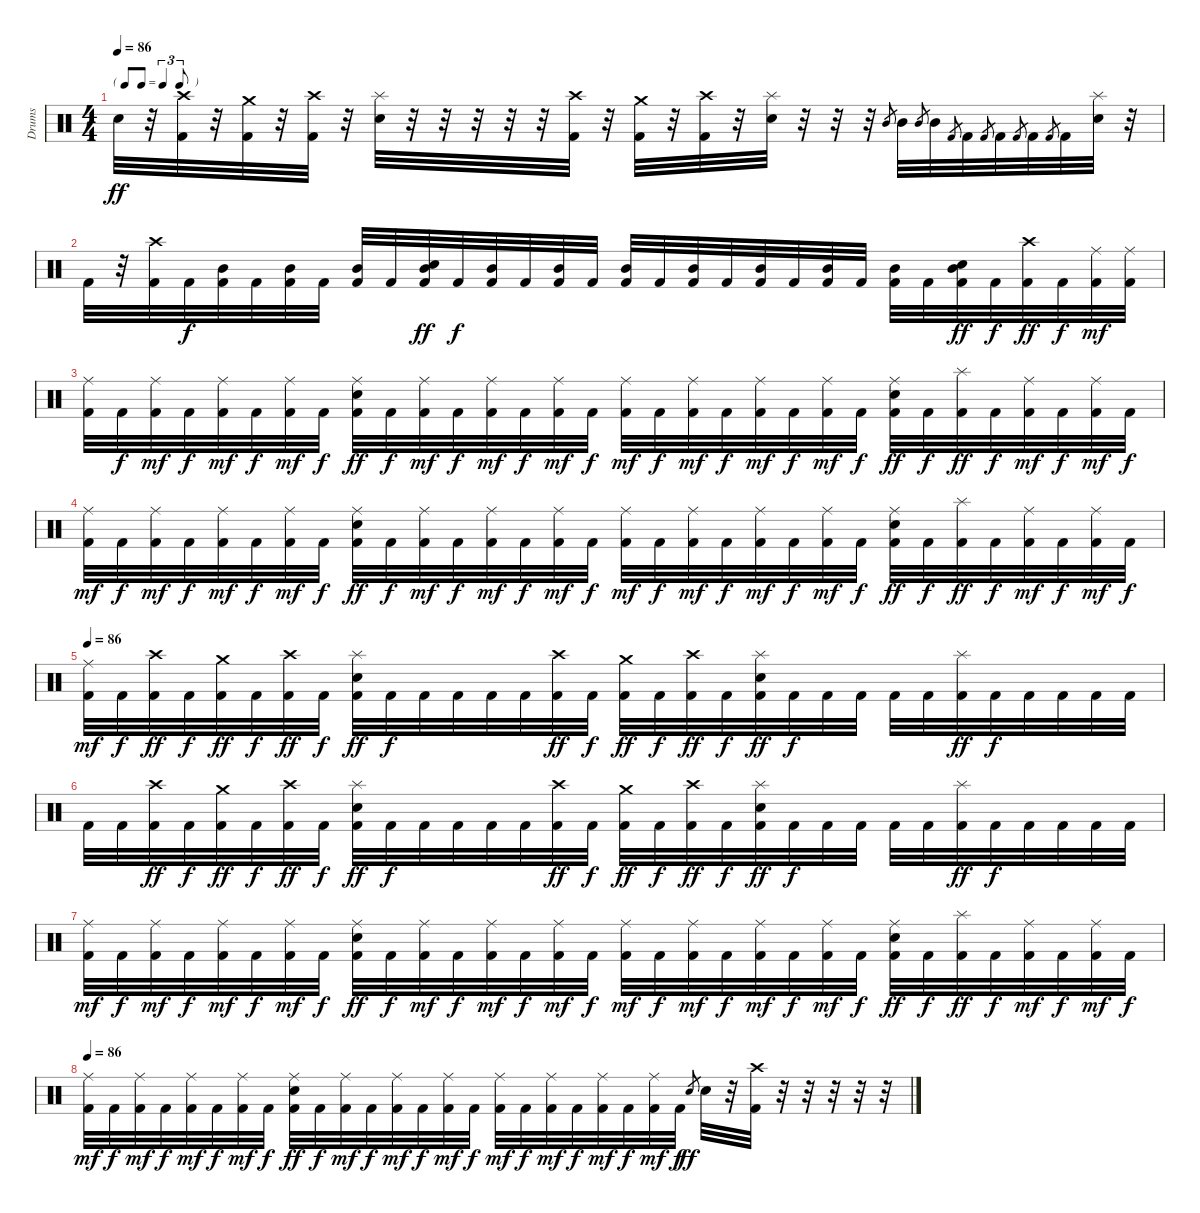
\track ("Drums" "Drums") {instrument percussion}
\staff {score}
\articulation defaults
\ts (4 4)
\tf triplet8th
\tempo 86
\clef neutral
\ks c "Electric Snare (hit)".32{dy ff}
r.32 ("Crash high (hit)" "Kick (hit) 2").32 r.32 ("Crash medium (hit)" "Kick (hit) 2").32 r.32 ("Crash high (hit)" "Kick (hit) 2").32 r.32 ("Splash (hit)" "Electric Snare (hit)").32 r.32 r.32 r.32 r.32 r.32 ("Crash high (hit)" "Kick (hit) 2").32 r.32 ("Crash medium (hit)" "Kick (hit) 2").32 r.32 ("Crash high (hit)" "Kick (hit) 2").32 r.32 ("Splash (hit)" "Electric Snare (hit)").32 r.32 r.32 r.32 "Mid Tom (hit)".8{gr} "Mid Tom (hit)".32 "Mid Tom (hit)".8{gr} "Mid Tom (hit)".32 "Kick (hit) 2".8{gr} "Kick (hit) 2".32 "Kick (hit) 2".8{gr} "Kick (hit) 2".32 "Kick (hit) 2".8{gr} "Kick (hit) 2".32 "Kick (hit) 2".8{gr} "Kick (hit) 2".32 ("Splash (hit)" "Electric Snare (hit)").32 r.32 |
"Kick (hit) 2".32 r.32 ("Crash high (hit)" "Kick (hit) 2").32 "Kick (hit) 2".32{dy f} ("Mid Tom (hit)" "Kick (hit) 2").32 "Kick (hit) 2".32 ("Mid Tom (hit)" "Kick (hit) 2").32 "Kick (hit) 2".32 ("Mid Tom (hit)" "Kick (hit) 2").32 "Kick (hit) 2".32 ("Electric Snare (hit)" "Mid Tom (hit)" "Kick (hit) 2").32{dy ff} "Kick (hit) 2".32{dy f} ("Mid Tom (hit)" "Kick (hit) 2").32 "Kick (hit) 2".32 ("Mid Tom (hit)" "Kick (hit) 2").32 "Kick (hit) 2".32 ("Mid Tom (hit)" "Kick (hit) 2").32 "Kick (hit) 2".32 ("Mid Tom (hit)" "Kick (hit) 2").32 "Kick (hit) 2".32 ("Mid Tom (hit)" "Kick (hit) 2").32 "Kick (hit) 2".32 ("Mid Tom (hit)" "Kick (hit) 2").32 "Kick (hit) 2".32 ("Mid Tom (hit)" "Kick (hit) 2").32 "Kick (hit) 2".32 ("Electric Snare (hit)" "Mid Tom (hit)" "Kick (hit) 2").32{dy ff} "Kick (hit) 2".32{dy f} ("Crash high (hit)" "Kick (hit) 2").32{dy ff} "Kick (hit) 2".32{dy f} ("Ride (middle)" "Kick (hit) 2").32{dy mf} ("Ride (middle)" "Kick (hit) 2").32 |
("Ride (middle)" "Kick (hit) 2").32 "Kick (hit) 2".32{dy f} ("Ride (middle)" "Kick (hit) 2").32{dy mf} "Kick (hit) 2".32{dy f} ("Ride (middle)" "Kick (hit) 2").32{dy mf} "Kick (hit) 2".32{dy f} ("Ride (middle)" "Kick (hit) 2").32{dy mf} "Kick (hit) 2".32{dy f} ("Ride (middle)" "Electric Snare (hit)" "Kick (hit) 2").32{dy ff} "Kick (hit) 2".32{dy f} ("Ride (middle)" "Kick (hit) 2").32{dy mf} "Kick (hit) 2".32{dy f} ("Ride (middle)" "Kick (hit) 2").32{dy mf} "Kick (hit) 2".32{dy f} ("Ride (middle)" "Kick (hit) 2").32{dy mf} "Kick (hit) 2".32{dy f} ("Ride (middle)" "Kick (hit) 2").32{dy mf} "Kick (hit) 2".32{dy f} ("Ride (middle)" "Kick (hit) 2").32{dy mf} "Kick (hit) 2".32{dy f} ("Ride (middle)" "Kick (hit) 2").32{dy mf} "Kick (hit) 2".32{dy f} ("Ride (middle)" "Kick (hit) 2").32{dy mf} "Kick (hit) 2".32{dy f} ("Ride (middle)" "Electric Snare (hit)" "Kick (hit) 2").32{dy ff} "Kick (hit) 2".32{dy f} ("Splash (hit)" "Kick (hit) 2").32{dy ff} "Kick (hit) 2".32{dy f} ("Ride (middle)" "Kick (hit) 2").32{dy mf} "Kick (hit) 2".32{dy f} ("Ride (middle)" "Kick (hit) 2").32{dy mf} "Kick (hit) 2".32{dy f} |
("Ride (middle)" "Kick (hit) 2").32{dy mf} "Kick (hit) 2".32{dy f} ("Ride (middle)" "Kick (hit) 2").32{dy mf} "Kick (hit) 2".32{dy f} ("Ride (middle)" "Kick (hit) 2").32{dy mf} "Kick (hit) 2".32{dy f} ("Ride (middle)" "Kick (hit) 2").32{dy mf} "Kick (hit) 2".32{dy f} ("Ride (middle)" "Electric Snare (hit)" "Kick (hit) 2").32{dy ff} "Kick (hit) 2".32{dy f} ("Ride (middle)" "Kick (hit) 2").32{dy mf} "Kick (hit) 2".32{dy f} ("Ride (middle)" "Kick (hit) 2").32{dy mf} "Kick (hit) 2".32{dy f} ("Ride (middle)" "Kick (hit) 2").32{dy mf} "Kick (hit) 2".32{dy f} ("Ride (middle)" "Kick (hit) 2").32{dy mf} "Kick (hit) 2".32{dy f} ("Ride (middle)" "Kick (hit) 2").32{dy mf} "Kick (hit) 2".32{dy f} ("Ride (middle)" "Kick (hit) 2").32{dy mf} "Kick (hit) 2".32{dy f} ("Ride (middle)" "Kick (hit) 2").32{dy mf} "Kick (hit) 2".32{dy f} ("Ride (middle)" "Electric Snare (hit)" "Kick (hit) 2").32{dy ff} "Kick (hit) 2".32{dy f} ("Splash (hit)" "Kick (hit) 2").32{dy ff} "Kick (hit) 2".32{dy f} ("Ride (middle)" "Kick (hit) 2").32{dy mf} "Kick (hit) 2".32{dy f} ("Ride (middle)" "Kick (hit) 2").32{dy mf} "Kick (hit) 2".32{dy f} |
\tempo 86
("Ride (middle)" "Kick (hit) 2").32{dy mf} "Kick (hit) 2".32{dy f} ("Crash high (hit)" "Kick (hit) 2").32{dy ff} "Kick (hit) 2".32{dy f} ("Crash medium (hit)" "Kick (hit) 2").32{dy ff} "Kick (hit) 2".32{dy f} ("Crash high (hit)" "Kick (hit) 2").32{dy ff} "Kick (hit) 2".32{dy f} ("Splash (hit)" "Electric Snare (hit)" "Kick (hit) 2").32{dy ff} "Kick (hit) 2".32{dy f} "Kick (hit) 2".32 "Kick (hit) 2".32 "Kick (hit) 2".32 "Kick (hit) 2".32 ("Crash high (hit)" "Kick (hit) 2").32{dy ff} "Kick (hit) 2".32{dy f} ("Crash medium (hit)" "Kick (hit) 2").32{dy ff} "Kick (hit) 2".32{dy f} ("Crash high (hit)" "Kick (hit) 2").32{dy ff} "Kick (hit) 2".32{dy f} ("Splash (hit)" "Electric Snare (hit)" "Kick (hit) 2").32{dy ff} "Kick (hit) 2".32{dy f} "Kick (hit) 2".32 "Kick (hit) 2".32 "Kick (hit) 2".32 "Kick (hit) 2".32 ("Splash (hit)" "Kick (hit) 2").32{dy ff} "Kick (hit) 2".32{dy f} "Kick (hit) 2".32 "Kick (hit) 2".32 "Kick (hit) 2".32 "Kick (hit) 2".32 |
"Kick (hit) 2".32 "Kick (hit) 2".32 ("Crash high (hit)" "Kick (hit) 2").32{dy ff} "Kick (hit) 2".32{dy f} ("Crash medium (hit)" "Kick (hit) 2").32{dy ff} "Kick (hit) 2".32{dy f} ("Crash high (hit)" "Kick (hit) 2").32{dy ff} "Kick (hit) 2".32{dy f} ("Splash (hit)" "Electric Snare (hit)" "Kick (hit) 2").32{dy ff} "Kick (hit) 2".32{dy f} "Kick (hit) 2".32 "Kick (hit) 2".32 "Kick (hit) 2".32 "Kick (hit) 2".32 ("Crash high (hit)" "Kick (hit) 2").32{dy ff} "Kick (hit) 2".32{dy f} ("Crash medium (hit)" "Kick (hit) 2").32{dy ff} "Kick (hit) 2".32{dy f} ("Crash high (hit)" "Kick (hit) 2").32{dy ff} "Kick (hit) 2".32{dy f} ("Splash (hit)" "Electric Snare (hit)" "Kick (hit) 2").32{dy ff} "Kick (hit) 2".32{dy f} "Kick (hit) 2".32 "Kick (hit) 2".32 "Kick (hit) 2".32 "Kick (hit) 2".32 ("Splash (hit)" "Kick (hit) 2").32{dy ff} "Kick (hit) 2".32{dy f} "Kick (hit) 2".32 "Kick (hit) 2".32 "Kick (hit) 2".32 "Kick (hit) 2".32 |
("Ride (middle)" "Kick (hit) 2").32{dy mf} "Kick (hit) 2".32{dy f} ("Ride (middle)" "Kick (hit) 2").32{dy mf} "Kick (hit) 2".32{dy f} ("Ride (middle)" "Kick (hit) 2").32{dy mf} "Kick (hit) 2".32{dy f} ("Ride (middle)" "Kick (hit) 2").32{dy mf} "Kick (hit) 2".32{dy f} ("Ride (middle)" "Electric Snare (hit)" "Kick (hit) 2").32{dy ff} "Kick (hit) 2".32{dy f} ("Ride (middle)" "Kick (hit) 2").32{dy mf} "Kick (hit) 2".32{dy f} ("Ride (middle)" "Kick (hit) 2").32{dy mf} "Kick (hit) 2".32{dy f} ("Ride (middle)" "Kick (hit) 2").32{dy mf} "Kick (hit) 2".32{dy f} ("Ride (middle)" "Kick (hit) 2").32{dy mf} "Kick (hit) 2".32{dy f} ("Ride (middle)" "Kick (hit) 2").32{dy mf} "Kick (hit) 2".32{dy f} ("Ride (middle)" "Kick (hit) 2").32{dy mf} "Kick (hit) 2".32{dy f} ("Ride (middle)" "Kick (hit) 2").32{dy mf} "Kick (hit) 2".32{dy f} ("Ride (middle)" "Electric Snare (hit)" "Kick (hit) 2").32{dy ff} "Kick (hit) 2".32{dy f} ("Splash (hit)" "Kick (hit) 2").32{dy ff} "Kick (hit) 2".32{dy f} ("Ride (middle)" "Kick (hit) 2").32{dy mf} "Kick (hit) 2".32{dy f} ("Ride (middle)" "Kick (hit) 2").32{dy mf} "Kick (hit) 2".32{dy f} |
\tempo 86
("Ride (middle)" "Kick (hit) 2").32{dy mf} "Kick (hit) 2".32{dy f} ("Ride (middle)" "Kick (hit) 2").32{dy mf} "Kick (hit) 2".32{dy f} ("Ride (middle)" "Kick (hit) 2").32{dy mf} "Kick (hit) 2".32{dy f} ("Ride (middle)" "Kick (hit) 2").32{dy mf} "Kick (hit) 2".32{dy f} ("Ride (middle)" "Electric Snare (hit)" "Kick (hit) 2").32{dy ff} "Kick (hit) 2".32{dy f} ("Ride (middle)" "Kick (hit) 2").32{dy mf} "Kick (hit) 2".32{dy f} ("Ride (middle)" "Kick (hit) 2").32{dy mf} "Kick (hit) 2".32{dy f} ("Ride (middle)" "Kick (hit) 2").32{dy mf} "Kick (hit) 2".32{dy f} ("Ride (middle)" "Kick (hit) 2").32{dy mf} "Kick (hit) 2".32{dy f} ("Ride (middle)" "Kick (hit) 2").32{dy mf} "Kick (hit) 2".32{dy f} ("Ride (middle)" "Kick (hit) 2").32{dy mf} "Kick (hit) 2".32{dy f} ("Ride (middle)" "Kick (hit) 2").32{dy mf} "Kick (hit) 2".32{dy f} "Electric Snare (hit)".8{gr dy ff} "Electric Snare (hit)".32 r.32 ("Crash high (hit)" "Kick (hit) 2").32 r.32 r.32 r.32 r.32 r.32
